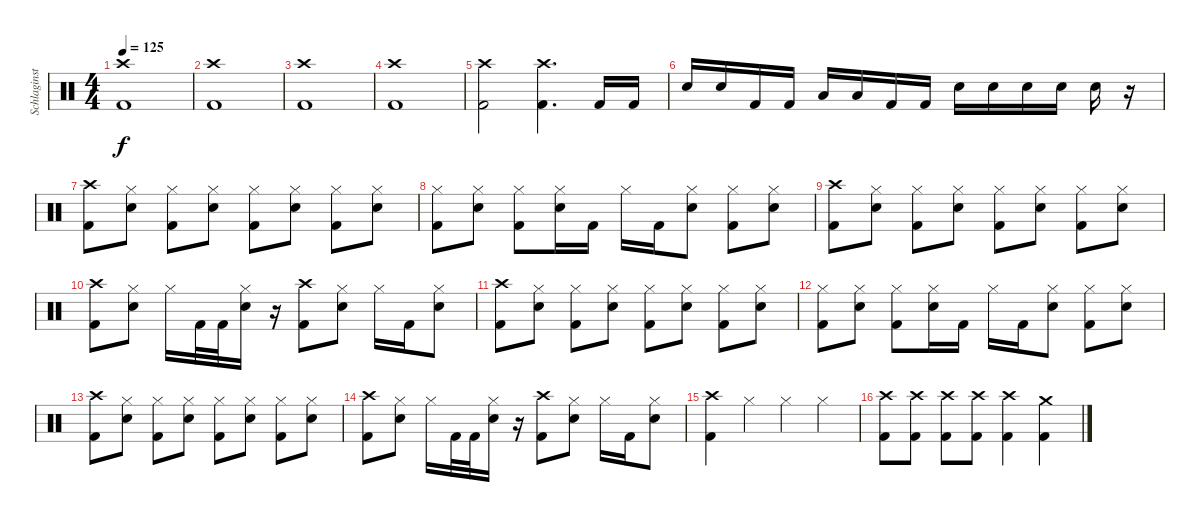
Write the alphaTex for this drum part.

\track ("Schlaginstrumente - Auswahl" "Schlaginst") {instrument percussion}
\staff {score}
\articulation defaults
\ts (4 4)
\tempo 125
\clef neutral
\ks c
("Crash high (hit)" "Kick (hit) 2").1{dy f} |
("Crash high (hit)" "Kick (hit) 2").1 |
("Crash high (hit)" "Kick (hit) 2").1 |
("Crash high (hit)" "Kick (hit) 2").1 |
("Crash high (hit)" "Kick (hit) 2").2 ("Crash high (hit)" "Kick (hit) 2").4{d} "Kick (hit) 2".16 "Kick (hit) 2".16 |
"Electric Snare (hit)".16 "Electric Snare (hit)".16 "Kick (hit) 2".16 "Kick (hit) 2".16 "Low Tom (hit)".16 "Low Tom (hit)".16 "Kick (hit) 2".16 "Kick (hit) 2".16 "Electric Snare (hit)".16 "Electric Snare (hit)".16 "Electric Snare (hit)".16 "Electric Snare (hit)".16 "Electric Snare (hit)".16 r.16 |
("Crash high (hit)" "Kick (hit) 2").8 ("Hi-Hat (closed)" "Electric Snare (hit)").8 ("Hi-Hat (closed)" "Kick (hit) 2").8 ("Hi-Hat (closed)" "Electric Snare (hit)").8 ("Hi-Hat (closed)" "Kick (hit) 2").8 ("Hi-Hat (closed)" "Electric Snare (hit)").8 ("Hi-Hat (closed)" "Kick (hit) 2").8 ("Hi-Hat (closed)" "Electric Snare (hit)").8 |
("Hi-Hat (closed)" "Kick (hit) 2").8 ("Hi-Hat (closed)" "Electric Snare (hit)").8 ("Hi-Hat (closed)" "Kick (hit) 2").8 ("Hi-Hat (closed)" "Electric Snare (hit)").16 "Kick (hit) 2".16 "Hi-Hat (closed)".16 "Kick (hit) 2".16 ("Hi-Hat (closed)" "Electric Snare (hit)").8 ("Hi-Hat (closed)" "Kick (hit) 2").8 ("Hi-Hat (closed)" "Electric Snare (hit)").8 |
("Crash high (hit)" "Kick (hit) 2").8 ("Hi-Hat (closed)" "Electric Snare (hit)").8 ("Hi-Hat (closed)" "Kick (hit) 2").8 ("Hi-Hat (closed)" "Electric Snare (hit)").8 ("Hi-Hat (closed)" "Kick (hit) 2").8 ("Hi-Hat (closed)" "Electric Snare (hit)").8 ("Hi-Hat (closed)" "Kick (hit) 2").8 ("Hi-Hat (closed)" "Electric Snare (hit)").8 |
("Crash high (hit)" "Kick (hit) 2").8 ("Hi-Hat (closed)" "Electric Snare (hit)").8 "Hi-Hat (closed)".16 "Kick (hit) 2".32 "Kick (hit) 2".32 ("Hi-Hat (closed)" "Electric Snare (hit)").16 r.16 ("Crash high (hit)" "Kick (hit) 2").8 ("Hi-Hat (closed)" "Electric Snare (hit)").8 "Hi-Hat (closed)".16 "Kick (hit) 2".16 ("Hi-Hat (closed)" "Electric Snare (hit)").8 |
("Crash high (hit)" "Kick (hit) 2").8 ("Hi-Hat (closed)" "Electric Snare (hit)").8 ("Hi-Hat (closed)" "Kick (hit) 2").8 ("Hi-Hat (closed)" "Electric Snare (hit)").8 ("Hi-Hat (closed)" "Kick (hit) 2").8 ("Hi-Hat (closed)" "Electric Snare (hit)").8 ("Hi-Hat (closed)" "Kick (hit) 2").8 ("Hi-Hat (closed)" "Electric Snare (hit)").8 |
("Hi-Hat (closed)" "Kick (hit) 2").8 ("Hi-Hat (closed)" "Electric Snare (hit)").8 ("Hi-Hat (closed)" "Kick (hit) 2").8 ("Hi-Hat (closed)" "Electric Snare (hit)").16 "Kick (hit) 2".16 "Hi-Hat (closed)".16 "Kick (hit) 2".16 ("Hi-Hat (closed)" "Electric Snare (hit)").8 ("Hi-Hat (closed)" "Kick (hit) 2").8 ("Hi-Hat (closed)" "Electric Snare (hit)").8 |
("Crash high (hit)" "Kick (hit) 2").8 ("Hi-Hat (closed)" "Electric Snare (hit)").8 ("Hi-Hat (closed)" "Kick (hit) 2").8 ("Hi-Hat (closed)" "Electric Snare (hit)").8 ("Hi-Hat (closed)" "Kick (hit) 2").8 ("Hi-Hat (closed)" "Electric Snare (hit)").8 ("Hi-Hat (closed)" "Kick (hit) 2").8 ("Hi-Hat (closed)" "Electric Snare (hit)").8 |
("Crash high (hit)" "Kick (hit) 2").8 ("Hi-Hat (closed)" "Electric Snare (hit)").8 "Hi-Hat (closed)".16 "Kick (hit) 2".32 "Kick (hit) 2".32 ("Hi-Hat (closed)" "Electric Snare (hit)").16 r.16 ("Crash high (hit)" "Kick (hit) 2").8 ("Hi-Hat (closed)" "Electric Snare (hit)").8 "Hi-Hat (closed)".16 "Kick (hit) 2".16 ("Hi-Hat (closed)" "Electric Snare (hit)").8 |
("Crash high (hit)" "Kick (hit) 2").4 "Hi-Hat (closed)".4 "Hi-Hat (closed)".4 "Hi-Hat (closed)".4 |
("Crash high (hit)" "Kick (hit) 2").8 ("Crash high (hit)" "Kick (hit) 2").8 ("Crash high (hit)" "Kick (hit) 2").8 ("Crash high (hit)" "Kick (hit) 2").8 ("Crash high (hit)" "Kick (hit) 2").4 ("Crash medium (hit)" "Kick (hit) 2").4
